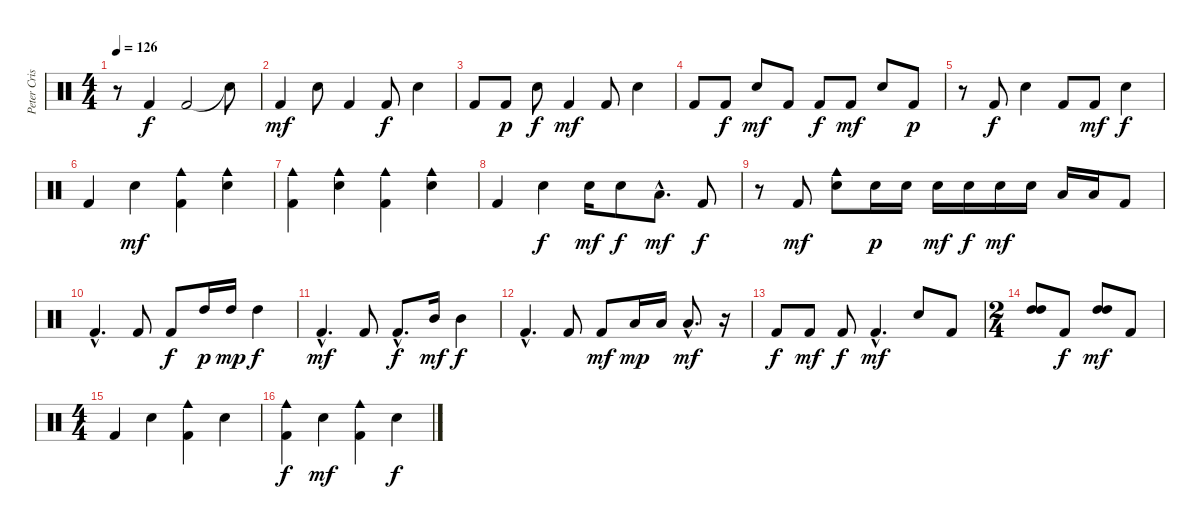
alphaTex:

\track ("Peter Criss" "Peter Cris") {instrument percussion}
\staff {score}
\articulation defaults
\ts (4 4)
\tempo 126
\clef neutral
\ks c
r.8{dy mf} "Kick (hit) 2".4{dy f} "Kick (hit) 2".2 "Snare (hit)"{t}.8 |
"Kick (hit) 2".4{dy mf} "Electric Snare (hit)".8 "Kick (hit) 2".4 "Kick (hit) 2".8{dy f} "Electric Snare (hit)".4 |
"Kick (hit) 2".8 "Kick (hit) 2".8{dy p} "Electric Snare (hit)".8{dy f} "Kick (hit) 2".4{dy mf} "Kick (hit) 2".8 "Electric Snare (hit)".4 |
"Kick (hit) 2".8 "Kick (hit) 2".8{dy f} "Electric Snare (hit)".8{dy mf} "Kick (hit) 2".8 "Kick (hit) 2".8{dy f} "Kick (hit) 2".8{dy mf} "Electric Snare (hit)".8 "Kick (hit) 2".8{dy p} |
r.8 "Kick (hit) 2".8{dy f} "Electric Snare (hit)".4 "Kick (hit) 2".8 "Kick (hit) 2".8{dy mf} "Electric Snare (hit)".4{dy f} |
"Kick (hit) 2".4 "Electric Snare (hit)".4{dy mf} ("Cowbell medium (hit)" "Kick (hit) 2").4 ("Cowbell medium (hit)" "Electric Snare (hit)").4 |
("Cowbell medium (hit)" "Kick (hit) 2").4 ("Cowbell medium (hit)" "Electric Snare (hit)").4 ("Cowbell medium (hit)" "Kick (hit) 2").4 ("Cowbell medium (hit)" "Electric Snare (hit)").4 |
"Kick (hit) 2".4 "Electric Snare (hit)".4{dy f} "Electric Snare (hit)".16{dy mf} "Electric Snare (hit)".8{dy f} "Low Tom (hit)"{hac}.8{d dy mf} "Kick (hit) 2".8{dy f} |
r.8 "Kick (hit) 2".8{dy mf} ("Cowbell medium (hit)" "Electric Snare (hit)").8 "Electric Snare (hit)".16{dy p} "Electric Snare (hit)".16 "Electric Snare (hit)".16{dy mf} "Electric Snare (hit)".16{dy f} "Electric Snare (hit)".16{dy mf} "Electric Snare (hit)".16 "Low Tom (hit)".16 "Low Tom (hit)".16 "Kick (hit) 2".8 |
"Kick (hit) 2"{hac}.4{d} "Kick (hit) 2".8 "Kick (hit) 2".8{dy f} "High Tom (hit)".16{dy p} "High Tom (hit)".16{dy mp} "High Tom (hit)".4{dy f} |
"Kick (hit) 2"{hac}.4{d dy mf} "Kick (hit) 2".8 "Kick (hit) 2"{hac}.8{d dy f} "Mid Tom (hit)".16{dy mf} "Mid Tom (hit)".4{dy f} |
"Kick (hit) 2"{hac}.4{d} "Kick (hit) 2".8 "Kick (hit) 2".8{dy mf} "Low Tom (hit)".16{dy mp} "Low Tom (hit)".16 "Low Tom (hit)"{hac}.8{d dy mf} r.16 |
"Kick (hit) 2".8{dy f} "Kick (hit) 2".8{dy mf} "Kick (hit) 2".8{dy f} "Kick (hit) 2"{hac}.4{d dy mf} "Electric Snare (hit)".8 "Kick (hit) 2".8 |
\ts (2 4)
("High Tom (hit)" "High Tom (hit)").8 "Kick (hit) 2".8{dy f} ("High Tom (hit)" "High Tom (hit)").8{dy mf} "Kick (hit) 2".8 |
\ts (4 4)
"Kick (hit) 2".4 "Electric Snare (hit)".4 ("Cowbell medium (hit)" "Kick (hit) 2").4 "Electric Snare (hit)".4 |
("Cowbell medium (hit)" "Kick (hit) 2").4{dy f} "Electric Snare (hit)".4{dy mf} ("Cowbell medium (hit)" "Kick (hit) 2").4 "Electric Snare (hit)".4{dy f}
